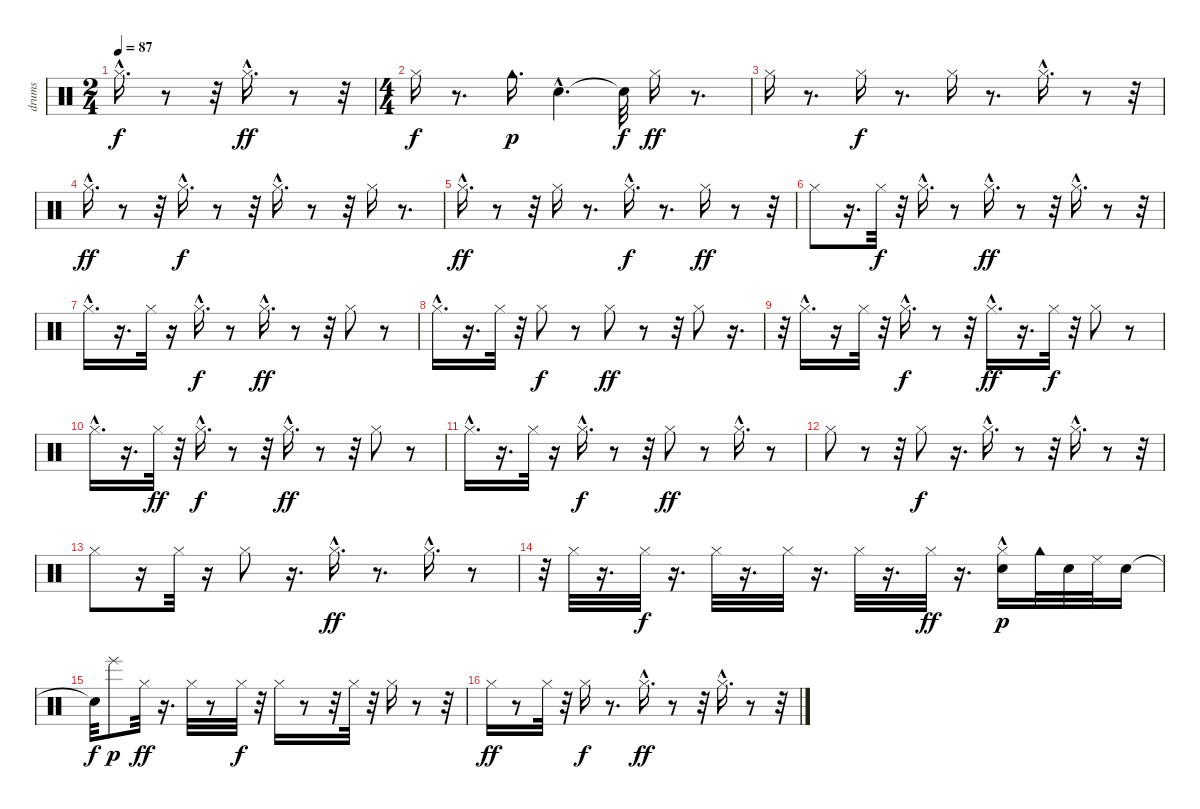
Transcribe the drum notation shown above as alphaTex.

\track ("drums" "drums") {instrument percussion}
\staff {score}
\articulation defaults
\ts (2 4)
\tempo 87
\clef neutral
\ks c "Hi-Hat (closed)"{hac}.16{d dy f}
r.8 r.32 "Hi-Hat (closed)"{hac}.16{d dy ff} r.8 r.32 |
\ts (4 4)
"Hi-Hat (closed)".16{dy f} r.8{d} "Cowbell high (hit)".16{d dy p} "Snare (hit)"{hac}.4{d} "Snare (hit)"{t}.32{dy f} "Hi-Hat (closed)".16{dy ff} r.8{d} |
"Hi-Hat (closed)".16 r.8{d} "Hi-Hat (closed)".16{dy f} r.8{d} "Hi-Hat (closed)".16 r.8{d} "Hi-Hat (closed)"{hac}.16{d} r.8 r.32 |
"Hi-Hat (closed)"{hac}.16{d dy ff} r.8 r.32 "Hi-Hat (closed)"{hac}.16{d dy f} r.8 r.32 "Hi-Hat (closed)"{hac}.16{d} r.8 r.32 "Hi-Hat (closed)".16 r.8{d} |
"Hi-Hat (closed)"{hac}.16{d dy ff} r.8 r.32 "Hi-Hat (closed)".16 r.8{d} "Hi-Hat (closed)"{hac}.16{d dy f} r.8{d} "Hi-Hat (closed)".16{dy ff} r.8 r.32 |
"Hi-Hat (closed)".8 r.16{d} "Hi-Hat (closed)".32{dy f} r.32 "Hi-Hat (closed)"{hac}.16{d} r.8 "Hi-Hat (closed)"{hac}.16{d dy ff} r.8 r.32 "Hi-Hat (closed)"{hac}.16{d} r.8 r.32 |
"Hi-Hat (closed)"{hac}.16{d} r.16{d} "Hi-Hat (closed)".32 r.16 "Hi-Hat (closed)"{hac}.16{d dy f} r.8 "Hi-Hat (closed)"{hac}.16{d dy ff} r.8 r.32 "Hi-Hat (closed)".8 r.8 |
"Hi-Hat (closed)"{hac}.16{d} r.16{d} "Hi-Hat (closed)".32 r.32 "Hi-Hat (closed)".8{dy f} r.8 "Hi-Hat (closed)".8{dy ff} r.8 r.32 "Hi-Hat (closed)".8 r.16{d} |
r.32 "Hi-Hat (closed)"{hac}.16{d} r.16 "Hi-Hat (closed)".32 r.32 "Hi-Hat (closed)"{hac}.16{d dy f} r.8 r.32 "Hi-Hat (closed)"{hac}.16{d dy ff} r.16{d} "Hi-Hat (closed)".32{dy f} r.32 "Hi-Hat (closed)".8 r.8 |
"Hi-Hat (closed)"{hac}.16{d} r.16{d} "Hi-Hat (closed)".32{dy ff} r.32 "Hi-Hat (closed)"{hac}.16{d dy f} r.8 r.32 "Hi-Hat (closed)"{hac}.16{d dy ff} r.8 r.32 "Hi-Hat (closed)".8 r.8 |
"Hi-Hat (closed)"{hac}.16{d} r.16{d} "Hi-Hat (closed)".32 r.16 "Hi-Hat (closed)"{hac}.16{d dy f} r.8 r.32 "Hi-Hat (closed)".8{dy ff} r.8 "Hi-Hat (closed)"{hac}.16{d} r.8 |
"Hi-Hat (closed)".8 r.8 r.32 "Hi-Hat (closed)".8{dy f} r.16{d} "Hi-Hat (closed)"{hac}.16{d} r.8 r.32 "Hi-Hat (closed)"{hac}.16{d} r.8 r.32 |
"Hi-Hat (closed)".8 r.16 "Hi-Hat (closed)".32 r.16 "Hi-Hat (closed)".8 r.16{d} "Hi-Hat (closed)"{hac}.16{d dy ff} r.8{d} "Hi-Hat (closed)"{hac}.16{d} r.8 |
r.32 "Hi-Hat (closed)".32 r.16{d} "Hi-Hat (closed)".32{dy f} r.16{d} "Hi-Hat (closed)".32 r.16{d} "Hi-Hat (closed)".32 r.16{d} "Hi-Hat (closed)".32 r.16{d} "Hi-Hat (closed)".32{dy ff} r.16{d} ("Hi-Hat (closed)"{hac} "Snare (hit)").16{dy p} "Cowbell high (hit)".32 "Snare (hit)".32 "Cowbell low (tip)".32 "Snare (hit)".16 |
"Snare (hit)"{t}.32{dy f} "Hand (slap)".8{dy p} "Hi-Hat (closed)".32{dy ff} r.16{d} "Hi-Hat (closed)".32 r.8 "Hi-Hat (closed)".32{dy f} r.32 "Hi-Hat (closed)".16 r.8 r.32 "Hi-Hat (closed)".32 r.32 "Hi-Hat (closed)".16 r.8 r.32 |
"Hi-Hat (closed)".16{dy ff} r.8 "Hi-Hat (closed)".32 r.32 "Hi-Hat (closed)".16{dy f} r.8{d} "Hi-Hat (closed)"{hac}.16{d dy ff} r.8 r.32 "Hi-Hat (closed)"{hac}.16{d} r.8 r.32
